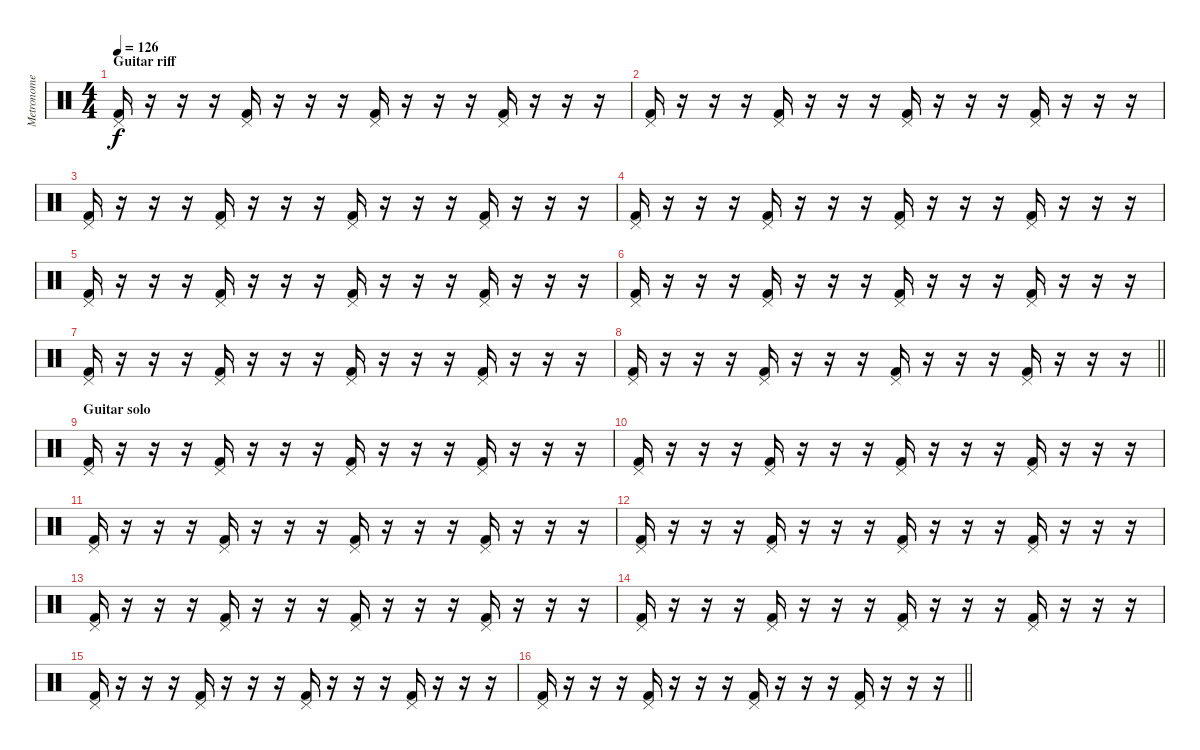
\track ("Metronome" "Metronome") {mute instrument percussion}
\staff {score}
\articulation defaults
\ts (4 4)
\section ("" "Guitar riff")
\tempo 126
\clef neutral
\ks c
("Pedal Hi-Hat (hit)" "Kick (hit) 2").16{dy f} r.16 r.16 r.16 ("Pedal Hi-Hat (hit)" "Kick (hit) 2").16 r.16 r.16 r.16 ("Pedal Hi-Hat (hit)" "Kick (hit) 2").16 r.16 r.16 r.16 ("Pedal Hi-Hat (hit)" "Kick (hit) 2").16 r.16 r.16 r.16 |
("Pedal Hi-Hat (hit)" "Kick (hit) 2").16 r.16 r.16 r.16 ("Pedal Hi-Hat (hit)" "Kick (hit) 2").16 r.16 r.16 r.16 ("Pedal Hi-Hat (hit)" "Kick (hit) 2").16 r.16 r.16 r.16 ("Pedal Hi-Hat (hit)" "Kick (hit) 2").16 r.16 r.16 r.16 |
("Pedal Hi-Hat (hit)" "Kick (hit) 2").16 r.16 r.16 r.16 ("Pedal Hi-Hat (hit)" "Kick (hit) 2").16 r.16 r.16 r.16 ("Pedal Hi-Hat (hit)" "Kick (hit) 2").16 r.16 r.16 r.16 ("Pedal Hi-Hat (hit)" "Kick (hit) 2").16 r.16 r.16 r.16 |
("Pedal Hi-Hat (hit)" "Kick (hit) 2").16 r.16 r.16 r.16 ("Pedal Hi-Hat (hit)" "Kick (hit) 2").16 r.16 r.16 r.16 ("Pedal Hi-Hat (hit)" "Kick (hit) 2").16 r.16 r.16 r.16 ("Pedal Hi-Hat (hit)" "Kick (hit) 2").16 r.16 r.16 r.16 |
("Pedal Hi-Hat (hit)" "Kick (hit) 2").16 r.16 r.16 r.16 ("Pedal Hi-Hat (hit)" "Kick (hit) 2").16 r.16 r.16 r.16 ("Pedal Hi-Hat (hit)" "Kick (hit) 2").16 r.16 r.16 r.16 ("Pedal Hi-Hat (hit)" "Kick (hit) 2").16 r.16 r.16 r.16 |
("Pedal Hi-Hat (hit)" "Kick (hit) 2").16 r.16 r.16 r.16 ("Pedal Hi-Hat (hit)" "Kick (hit) 2").16 r.16 r.16 r.16 ("Pedal Hi-Hat (hit)" "Kick (hit) 2").16 r.16 r.16 r.16 ("Pedal Hi-Hat (hit)" "Kick (hit) 2").16 r.16 r.16 r.16 |
("Pedal Hi-Hat (hit)" "Kick (hit) 2").16 r.16 r.16 r.16 ("Pedal Hi-Hat (hit)" "Kick (hit) 2").16 r.16 r.16 r.16 ("Pedal Hi-Hat (hit)" "Kick (hit) 2").16 r.16 r.16 r.16 ("Pedal Hi-Hat (hit)" "Kick (hit) 2").16 r.16 r.16 r.16 |
\barLineRight lightlight
("Pedal Hi-Hat (hit)" "Kick (hit) 2").16 r.16 r.16 r.16 ("Pedal Hi-Hat (hit)" "Kick (hit) 2").16 r.16 r.16 r.16 ("Pedal Hi-Hat (hit)" "Kick (hit) 2").16 r.16 r.16 r.16 ("Pedal Hi-Hat (hit)" "Kick (hit) 2").16 r.16 r.16 r.16 |
\section ("" "Guitar solo")
("Pedal Hi-Hat (hit)" "Kick (hit) 2").16 r.16 r.16 r.16 ("Pedal Hi-Hat (hit)" "Kick (hit) 2").16 r.16 r.16 r.16 ("Pedal Hi-Hat (hit)" "Kick (hit) 2").16 r.16 r.16 r.16 ("Pedal Hi-Hat (hit)" "Kick (hit) 2").16 r.16 r.16 r.16 |
("Pedal Hi-Hat (hit)" "Kick (hit) 2").16 r.16 r.16 r.16 ("Pedal Hi-Hat (hit)" "Kick (hit) 2").16 r.16 r.16 r.16 ("Pedal Hi-Hat (hit)" "Kick (hit) 2").16 r.16 r.16 r.16 ("Pedal Hi-Hat (hit)" "Kick (hit) 2").16 r.16 r.16 r.16 |
("Pedal Hi-Hat (hit)" "Kick (hit) 2").16 r.16 r.16 r.16 ("Pedal Hi-Hat (hit)" "Kick (hit) 2").16 r.16 r.16 r.16 ("Pedal Hi-Hat (hit)" "Kick (hit) 2").16 r.16 r.16 r.16 ("Pedal Hi-Hat (hit)" "Kick (hit) 2").16 r.16 r.16 r.16 |
("Pedal Hi-Hat (hit)" "Kick (hit) 2").16 r.16 r.16 r.16 ("Pedal Hi-Hat (hit)" "Kick (hit) 2").16 r.16 r.16 r.16 ("Pedal Hi-Hat (hit)" "Kick (hit) 2").16 r.16 r.16 r.16 ("Pedal Hi-Hat (hit)" "Kick (hit) 2").16 r.16 r.16 r.16 |
("Pedal Hi-Hat (hit)" "Kick (hit) 2").16 r.16 r.16 r.16 ("Pedal Hi-Hat (hit)" "Kick (hit) 2").16 r.16 r.16 r.16 ("Pedal Hi-Hat (hit)" "Kick (hit) 2").16 r.16 r.16 r.16 ("Pedal Hi-Hat (hit)" "Kick (hit) 2").16 r.16 r.16 r.16 |
("Pedal Hi-Hat (hit)" "Kick (hit) 2").16 r.16 r.16 r.16 ("Pedal Hi-Hat (hit)" "Kick (hit) 2").16 r.16 r.16 r.16 ("Pedal Hi-Hat (hit)" "Kick (hit) 2").16 r.16 r.16 r.16 ("Pedal Hi-Hat (hit)" "Kick (hit) 2").16 r.16 r.16 r.16 |
("Pedal Hi-Hat (hit)" "Kick (hit) 2").16 r.16 r.16 r.16 ("Pedal Hi-Hat (hit)" "Kick (hit) 2").16 r.16 r.16 r.16 ("Pedal Hi-Hat (hit)" "Kick (hit) 2").16 r.16 r.16 r.16 ("Pedal Hi-Hat (hit)" "Kick (hit) 2").16 r.16 r.16 r.16 |
\barLineRight lightlight
("Pedal Hi-Hat (hit)" "Kick (hit) 2").16 r.16 r.16 r.16 ("Pedal Hi-Hat (hit)" "Kick (hit) 2").16 r.16 r.16 r.16 ("Pedal Hi-Hat (hit)" "Kick (hit) 2").16 r.16 r.16 r.16 ("Pedal Hi-Hat (hit)" "Kick (hit) 2").16 r.16 r.16 r.16
